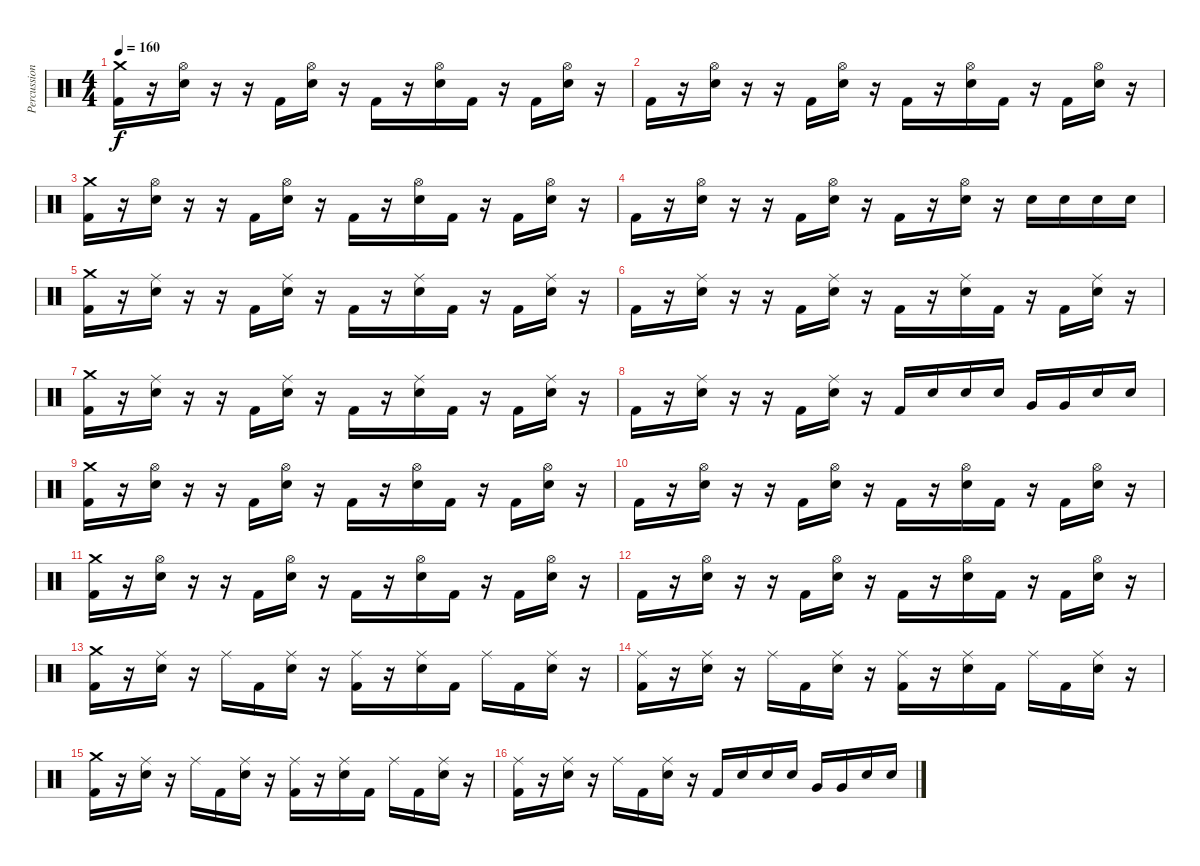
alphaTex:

\track ("Percussion" "Percussion") {instrument percussion}
\staff {score}
\articulation defaults
\ts (4 4)
\tempo 160
\clef neutral
\ks c
("Crash medium (hit)" "Kick (hit) 2").16{dy f} r.16 ("Hi-Hat (open)" "Electric Snare (hit)").16 r.16 r.16 "Kick (hit) 2".16 ("Hi-Hat (open)" "Electric Snare (hit)").16 r.16 "Kick (hit) 2".16 r.16 ("Hi-Hat (open)" "Electric Snare (hit)").16 "Kick (hit) 2".16 r.16 "Kick (hit) 2".16 ("Hi-Hat (open)" "Electric Snare (hit)").16 r.16 |
"Kick (hit) 2".16 r.16 ("Hi-Hat (open)" "Electric Snare (hit)").16 r.16 r.16 "Kick (hit) 2".16 ("Hi-Hat (open)" "Electric Snare (hit)").16 r.16 "Kick (hit) 2".16 r.16 ("Hi-Hat (open)" "Electric Snare (hit)").16 "Kick (hit) 2".16 r.16 "Kick (hit) 2".16 ("Hi-Hat (open)" "Electric Snare (hit)").16 r.16 |
("Crash medium (hit)" "Kick (hit) 2").16 r.16 ("Hi-Hat (open)" "Electric Snare (hit)").16 r.16 r.16 "Kick (hit) 2".16 ("Hi-Hat (open)" "Electric Snare (hit)").16 r.16 "Kick (hit) 2".16 r.16 ("Hi-Hat (open)" "Electric Snare (hit)").16 "Kick (hit) 2".16 r.16 "Kick (hit) 2".16 ("Hi-Hat (open)" "Electric Snare (hit)").16 r.16 |
"Kick (hit) 2".16 r.16 ("Hi-Hat (open)" "Electric Snare (hit)").16 r.16 r.16 "Kick (hit) 2".16 ("Hi-Hat (open)" "Electric Snare (hit)").16 r.16 "Kick (hit) 2".16 r.16 ("Hi-Hat (open)" "Electric Snare (hit)").16 r.16 "Electric Snare (hit)".16 "Electric Snare (hit)".16 "Electric Snare (hit)".16 "Electric Snare (hit)".16 |
("Crash medium (hit)" "Kick (hit) 2").16 r.16 ("Ride (middle)" "Electric Snare (hit)").16 r.16 r.16 "Kick (hit) 2".16 ("Ride (middle)" "Electric Snare (hit)").16 r.16 "Kick (hit) 2".16 r.16 ("Ride (middle)" "Electric Snare (hit)").16 "Kick (hit) 2".16 r.16 "Kick (hit) 2".16 ("Ride (middle)" "Electric Snare (hit)").16 r.16 |
"Kick (hit) 2".16 r.16 ("Ride (middle)" "Electric Snare (hit)").16 r.16 r.16 "Kick (hit) 2".16 ("Ride (middle)" "Electric Snare (hit)").16 r.16 "Kick (hit) 2".16 r.16 ("Ride (middle)" "Electric Snare (hit)").16 "Kick (hit) 2".16 r.16 "Kick (hit) 2".16 ("Ride (middle)" "Electric Snare (hit)").16 r.16 |
("Crash medium (hit)" "Kick (hit) 2").16 r.16 ("Ride (middle)" "Electric Snare (hit)").16 r.16 r.16 "Kick (hit) 2".16 ("Ride (middle)" "Electric Snare (hit)").16 r.16 "Kick (hit) 2".16 r.16 ("Ride (middle)" "Electric Snare (hit)").16 "Kick (hit) 2".16 r.16 "Kick (hit) 2".16 ("Ride (middle)" "Electric Snare (hit)").16 r.16 |
"Kick (hit) 2".16 r.16 ("Ride (middle)" "Electric Snare (hit)").16 r.16 r.16 "Kick (hit) 2".16 ("Ride (middle)" "Electric Snare (hit)").16 r.16 "Kick (hit) 2".16 "Electric Snare (hit)".16 "Electric Snare (hit)".16 "Electric Snare (hit)".16 "Very Low Tom (hit)".16 "Very Low Tom (hit)".16 "Electric Snare (hit)".16 "Electric Snare (hit)".16 |
("Crash medium (hit)" "Kick (hit) 2").16 r.16 ("Hi-Hat (open)" "Electric Snare (hit)").16 r.16 r.16 "Kick (hit) 2".16 ("Hi-Hat (open)" "Electric Snare (hit)").16 r.16 "Kick (hit) 2".16 r.16 ("Hi-Hat (open)" "Electric Snare (hit)").16 "Kick (hit) 2".16 r.16 "Kick (hit) 2".16 ("Hi-Hat (open)" "Electric Snare (hit)").16 r.16 |
"Kick (hit) 2".16 r.16 ("Hi-Hat (open)" "Electric Snare (hit)").16 r.16 r.16 "Kick (hit) 2".16 ("Hi-Hat (open)" "Electric Snare (hit)").16 r.16 "Kick (hit) 2".16 r.16 ("Hi-Hat (open)" "Electric Snare (hit)").16 "Kick (hit) 2".16 r.16 "Kick (hit) 2".16 ("Hi-Hat (open)" "Electric Snare (hit)").16 r.16 |
("Crash medium (hit)" "Kick (hit) 2").16 r.16 ("Hi-Hat (open)" "Electric Snare (hit)").16 r.16 r.16 "Kick (hit) 2".16 ("Hi-Hat (open)" "Electric Snare (hit)").16 r.16 "Kick (hit) 2".16 r.16 ("Hi-Hat (open)" "Electric Snare (hit)").16 "Kick (hit) 2".16 r.16 "Kick (hit) 2".16 ("Hi-Hat (open)" "Electric Snare (hit)").16 r.16 |
"Kick (hit) 2".16 r.16 ("Hi-Hat (open)" "Electric Snare (hit)").16 r.16 r.16 "Kick (hit) 2".16 ("Hi-Hat (open)" "Electric Snare (hit)").16 r.16 "Kick (hit) 2".16 r.16 ("Hi-Hat (open)" "Electric Snare (hit)").16 "Kick (hit) 2".16 r.16 "Kick (hit) 2".16 ("Hi-Hat (open)" "Electric Snare (hit)").16 r.16 |
("Crash medium (hit)" "Kick (hit) 2").16 r.16 ("Ride (middle)" "Electric Snare (hit)").16 r.16 "Ride (middle)".16 "Kick (hit) 2".16 ("Ride (middle)" "Electric Snare (hit)").16 r.16 ("Ride (middle)" "Kick (hit) 2").16 r.16 ("Ride (middle)" "Electric Snare (hit)").16 "Kick (hit) 2".16 "Ride (middle)".16 "Kick (hit) 2".16 ("Ride (middle)" "Electric Snare (hit)").16 r.16 |
("Ride (middle)" "Kick (hit) 2").16 r.16 ("Ride (middle)" "Electric Snare (hit)").16 r.16 "Ride (middle)".16 "Kick (hit) 2".16 ("Ride (middle)" "Electric Snare (hit)").16 r.16 ("Ride (middle)" "Kick (hit) 2").16 r.16 ("Ride (middle)" "Electric Snare (hit)").16 "Kick (hit) 2".16 "Ride (middle)".16 "Kick (hit) 2".16 ("Ride (middle)" "Electric Snare (hit)").16 r.16 |
("Crash medium (hit)" "Kick (hit) 2").16 r.16 ("Ride (middle)" "Electric Snare (hit)").16 r.16 "Ride (middle)".16 "Kick (hit) 2".16 ("Ride (middle)" "Electric Snare (hit)").16 r.16 ("Ride (middle)" "Kick (hit) 2").16 r.16 ("Ride (middle)" "Electric Snare (hit)").16 "Kick (hit) 2".16 "Ride (middle)".16 "Kick (hit) 2".16 ("Ride (middle)" "Electric Snare (hit)").16 r.16 |
("Ride (middle)" "Kick (hit) 2").16 r.16 ("Ride (middle)" "Electric Snare (hit)").16 r.16 "Ride (middle)".16 "Kick (hit) 2".16 ("Ride (middle)" "Electric Snare (hit)").16 r.16 "Kick (hit) 2".16 "Electric Snare (hit)".16 "Electric Snare (hit)".16 "Electric Snare (hit)".16 "Very Low Tom (hit)".16 "Very Low Tom (hit)".16 "Electric Snare (hit)".16 "Electric Snare (hit)".16
